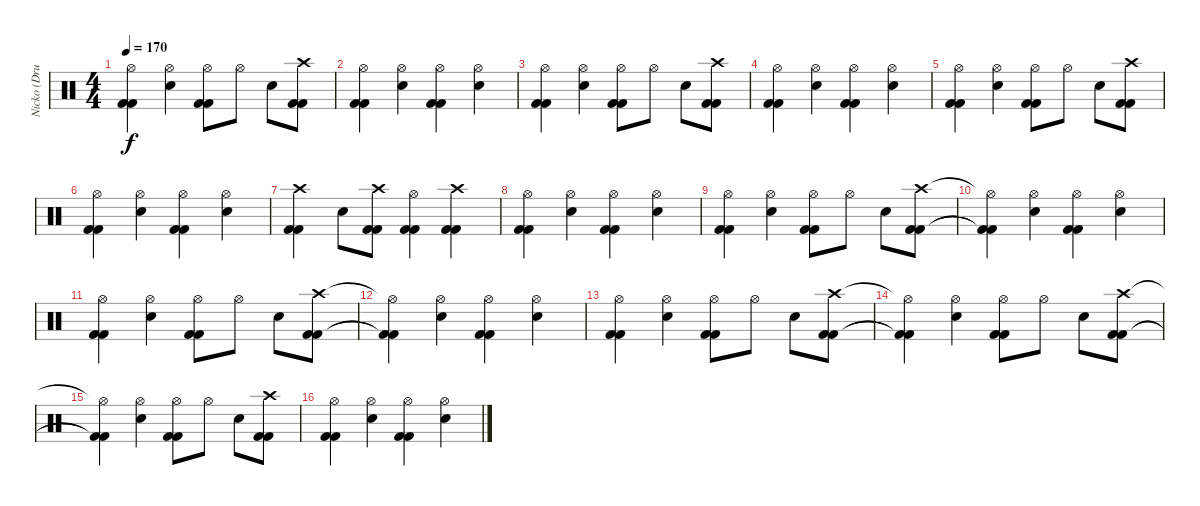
\track ("Nicko (Drums)" "Nicko (Dru") {instrument percussion}
\staff {score}
\articulation defaults
\ts (4 4)
\tempo 170
\clef neutral
\ks c
("Hi-Hat (open)" "Kick (hit) 2" "Kick (hit) 2").4{dy f} ("Hi-Hat (open)" "Snare (hit) 2").4 ("Hi-Hat (open)" "Kick (hit) 2" "Kick (hit) 2").8 "Hi-Hat (open)".8 "Snare (hit) 2".8 ("Crash high (hit)" "Kick (hit) 2" "Kick (hit) 2").8 |
("Hi-Hat (open)" "Kick (hit) 2" "Kick (hit) 2").4 ("Hi-Hat (open)" "Snare (hit) 2").4 ("Hi-Hat (open)" "Kick (hit) 2" "Kick (hit) 2").4 ("Hi-Hat (open)" "Snare (hit) 2").4 |
("Hi-Hat (open)" "Kick (hit) 2" "Kick (hit) 2").4 ("Hi-Hat (open)" "Snare (hit) 2").4 ("Hi-Hat (open)" "Kick (hit) 2" "Kick (hit) 2").8 "Hi-Hat (open)".8 "Snare (hit) 2".8 ("Crash high (hit)" "Kick (hit) 2" "Kick (hit) 2").8 |
("Hi-Hat (open)" "Kick (hit) 2" "Kick (hit) 2").4 ("Hi-Hat (open)" "Snare (hit) 2").4 ("Hi-Hat (open)" "Kick (hit) 2" "Kick (hit) 2").4 ("Hi-Hat (open)" "Snare (hit) 2").4 |
("Hi-Hat (open)" "Kick (hit) 2" "Kick (hit) 2").4 ("Hi-Hat (open)" "Snare (hit) 2").4 ("Hi-Hat (open)" "Kick (hit) 2" "Kick (hit) 2").8 "Hi-Hat (open)".8 "Snare (hit) 2".8 ("Crash high (hit)" "Kick (hit) 2" "Kick (hit) 2").8 |
("Hi-Hat (open)" "Kick (hit) 2" "Kick (hit) 2").4 ("Hi-Hat (open)" "Snare (hit) 2").4 ("Hi-Hat (open)" "Kick (hit) 2" "Kick (hit) 2").4 ("Hi-Hat (open)" "Snare (hit) 2").4 |
("Crash high (hit)" "Kick (hit) 2" "Kick (hit) 2").4 "Snare (hit) 2".8 ("Crash high (hit)" "Kick (hit) 2" "Kick (hit) 2").8 ("Hi-Hat (open)" "Kick (hit) 2" "Kick (hit) 2").4 ("Crash high (hit)" "Kick (hit) 2" "Kick (hit) 2").4 |
("Hi-Hat (open)" "Kick (hit) 2" "Kick (hit) 2").4 ("Hi-Hat (open)" "Snare (hit) 2").4 ("Hi-Hat (open)" "Kick (hit) 2" "Kick (hit) 2").4 ("Hi-Hat (open)" "Snare (hit) 2").4 |
("Hi-Hat (open)" "Kick (hit) 2" "Kick (hit) 2").4 ("Hi-Hat (open)" "Snare (hit) 2").4 ("Hi-Hat (open)" "Kick (hit) 2" "Kick (hit) 2").8 "Hi-Hat (open)".8 "Snare (hit) 2".8 ("Crash high (hit)" "Kick (hit) 2" "Kick (hit) 2").8 |
("Hi-Hat (open)"{t} "Kick (hit) 2"{t} "Kick (hit) 2"{t}).4 ("Hi-Hat (open)" "Snare (hit) 2").4 ("Hi-Hat (open)" "Kick (hit) 2" "Kick (hit) 2").4 ("Hi-Hat (open)" "Snare (hit) 2").4 |
("Hi-Hat (open)" "Kick (hit) 2" "Kick (hit) 2").4 ("Hi-Hat (open)" "Snare (hit) 2").4 ("Hi-Hat (open)" "Kick (hit) 2" "Kick (hit) 2").8 "Hi-Hat (open)".8 "Snare (hit) 2".8 ("Crash high (hit)" "Kick (hit) 2" "Kick (hit) 2").8 |
("Hi-Hat (open)"{t} "Kick (hit) 2"{t} "Kick (hit) 2"{t}).4 ("Hi-Hat (open)" "Snare (hit) 2").4 ("Hi-Hat (open)" "Kick (hit) 2" "Kick (hit) 2").4 ("Hi-Hat (open)" "Snare (hit) 2").4 |
("Hi-Hat (open)" "Kick (hit) 2" "Kick (hit) 2").4 ("Hi-Hat (open)" "Snare (hit) 2").4 ("Hi-Hat (open)" "Kick (hit) 2" "Kick (hit) 2").8 "Hi-Hat (open)".8 "Snare (hit) 2".8 ("Crash high (hit)" "Kick (hit) 2" "Kick (hit) 2").8 |
("Hi-Hat (open)"{t} "Kick (hit) 2"{t} "Kick (hit) 2"{t}).4 ("Hi-Hat (open)" "Snare (hit) 2").4 ("Hi-Hat (open)" "Kick (hit) 2" "Kick (hit) 2").8 "Hi-Hat (open)".8 "Snare (hit) 2".8 ("Crash high (hit)" "Kick (hit) 2" "Kick (hit) 2").8 |
("Hi-Hat (open)"{t} "Kick (hit) 2"{t} "Kick (hit) 2"{t}).4 ("Hi-Hat (open)" "Snare (hit) 2").4 ("Hi-Hat (open)" "Kick (hit) 2" "Kick (hit) 2").8 "Hi-Hat (open)".8 "Snare (hit) 2".8 ("Crash high (hit)" "Kick (hit) 2" "Kick (hit) 2").8 |
("Hi-Hat (open)" "Kick (hit) 2" "Kick (hit) 2").4 ("Hi-Hat (open)" "Snare (hit) 2").4 ("Hi-Hat (open)" "Kick (hit) 2" "Kick (hit) 2").4 ("Hi-Hat (open)" "Snare (hit) 2").4
